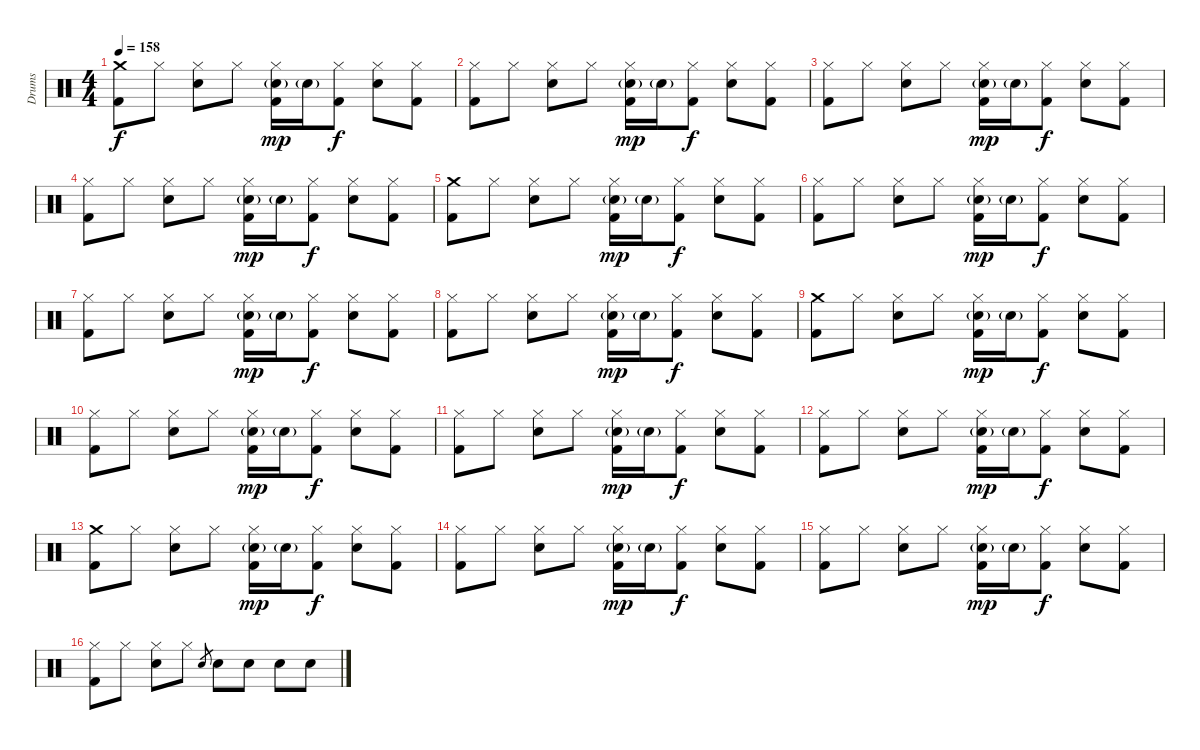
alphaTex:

\track ("Drums" "Drums") {instrument percussion}
\staff {score}
\articulation defaults
\ts (4 4)
\tempo 158
\clef neutral
\ks c
("Crash medium (hit)" "Kick (hit) 2").8{dy f} "Hi-Hat (closed)".8 ("Hi-Hat (closed)" "Electric Snare (hit)").8 "Hi-Hat (closed)".8 ("Hi-Hat (closed)" "Electric Snare (hit)"{g} "Kick (hit) 2").16{dy mp} "Electric Snare (hit)"{g}.16 ("Hi-Hat (closed)" "Kick (hit) 2").8{dy f} ("Hi-Hat (closed)" "Electric Snare (hit)").8 ("Hi-Hat (closed)" "Kick (hit) 2").8 |
("Hi-Hat (closed)" "Kick (hit) 2").8 "Hi-Hat (closed)".8 ("Hi-Hat (closed)" "Electric Snare (hit)").8 "Hi-Hat (closed)".8 ("Hi-Hat (closed)" "Electric Snare (hit)"{g} "Kick (hit) 2").16{dy mp} "Electric Snare (hit)"{g}.16 ("Hi-Hat (closed)" "Kick (hit) 2").8{dy f} ("Hi-Hat (closed)" "Electric Snare (hit)").8 ("Hi-Hat (closed)" "Kick (hit) 2").8 |
("Hi-Hat (closed)" "Kick (hit) 2").8 "Hi-Hat (closed)".8 ("Hi-Hat (closed)" "Electric Snare (hit)").8 "Hi-Hat (closed)".8 ("Hi-Hat (closed)" "Electric Snare (hit)"{g} "Kick (hit) 2").16{dy mp} "Electric Snare (hit)"{g}.16 ("Hi-Hat (closed)" "Kick (hit) 2").8{dy f} ("Hi-Hat (closed)" "Electric Snare (hit)").8 ("Hi-Hat (closed)" "Kick (hit) 2").8 |
("Hi-Hat (closed)" "Kick (hit) 2").8 "Hi-Hat (closed)".8 ("Hi-Hat (closed)" "Electric Snare (hit)").8 "Hi-Hat (closed)".8 ("Hi-Hat (closed)" "Electric Snare (hit)"{g} "Kick (hit) 2").16{dy mp} "Electric Snare (hit)"{g}.16 ("Hi-Hat (closed)" "Kick (hit) 2").8{dy f} ("Hi-Hat (closed)" "Electric Snare (hit)").8 ("Hi-Hat (closed)" "Kick (hit) 2").8 |
("Crash medium (hit)" "Kick (hit) 2").8 "Hi-Hat (closed)".8 ("Hi-Hat (closed)" "Electric Snare (hit)").8 "Hi-Hat (closed)".8 ("Hi-Hat (closed)" "Electric Snare (hit)"{g} "Kick (hit) 2").16{dy mp} "Electric Snare (hit)"{g}.16 ("Hi-Hat (closed)" "Kick (hit) 2").8{dy f} ("Hi-Hat (closed)" "Electric Snare (hit)").8 ("Hi-Hat (closed)" "Kick (hit) 2").8 |
("Hi-Hat (closed)" "Kick (hit) 2").8 "Hi-Hat (closed)".8 ("Hi-Hat (closed)" "Electric Snare (hit)").8 "Hi-Hat (closed)".8 ("Hi-Hat (closed)" "Electric Snare (hit)"{g} "Kick (hit) 2").16{dy mp} "Electric Snare (hit)"{g}.16 ("Hi-Hat (closed)" "Kick (hit) 2").8{dy f} ("Hi-Hat (closed)" "Electric Snare (hit)").8 ("Hi-Hat (closed)" "Kick (hit) 2").8 |
("Hi-Hat (closed)" "Kick (hit) 2").8 "Hi-Hat (closed)".8 ("Hi-Hat (closed)" "Electric Snare (hit)").8 "Hi-Hat (closed)".8 ("Hi-Hat (closed)" "Electric Snare (hit)"{g} "Kick (hit) 2").16{dy mp} "Electric Snare (hit)"{g}.16 ("Hi-Hat (closed)" "Kick (hit) 2").8{dy f} ("Hi-Hat (closed)" "Electric Snare (hit)").8 ("Hi-Hat (closed)" "Kick (hit) 2").8 |
("Hi-Hat (closed)" "Kick (hit) 2").8 "Hi-Hat (closed)".8 ("Hi-Hat (closed)" "Electric Snare (hit)").8 "Hi-Hat (closed)".8 ("Hi-Hat (closed)" "Electric Snare (hit)"{g} "Kick (hit) 2").16{dy mp} "Electric Snare (hit)"{g}.16 ("Hi-Hat (closed)" "Kick (hit) 2").8{dy f} ("Hi-Hat (closed)" "Electric Snare (hit)").8 ("Hi-Hat (closed)" "Kick (hit) 2").8 |
("Crash medium (hit)" "Kick (hit) 2").8 "Hi-Hat (closed)".8 ("Hi-Hat (closed)" "Electric Snare (hit)").8 "Hi-Hat (closed)".8 ("Hi-Hat (closed)" "Electric Snare (hit)"{g} "Kick (hit) 2").16{dy mp} "Electric Snare (hit)"{g}.16 ("Hi-Hat (closed)" "Kick (hit) 2").8{dy f} ("Hi-Hat (closed)" "Electric Snare (hit)").8 ("Hi-Hat (closed)" "Kick (hit) 2").8 |
("Hi-Hat (closed)" "Kick (hit) 2").8 "Hi-Hat (closed)".8 ("Hi-Hat (closed)" "Electric Snare (hit)").8 "Hi-Hat (closed)".8 ("Hi-Hat (closed)" "Electric Snare (hit)"{g} "Kick (hit) 2").16{dy mp} "Electric Snare (hit)"{g}.16 ("Hi-Hat (closed)" "Kick (hit) 2").8{dy f} ("Hi-Hat (closed)" "Electric Snare (hit)").8 ("Hi-Hat (closed)" "Kick (hit) 2").8 |
("Hi-Hat (closed)" "Kick (hit) 2").8 "Hi-Hat (closed)".8 ("Hi-Hat (closed)" "Electric Snare (hit)").8 "Hi-Hat (closed)".8 ("Hi-Hat (closed)" "Electric Snare (hit)"{g} "Kick (hit) 2").16{dy mp} "Electric Snare (hit)"{g}.16 ("Hi-Hat (closed)" "Kick (hit) 2").8{dy f} ("Hi-Hat (closed)" "Electric Snare (hit)").8 ("Hi-Hat (closed)" "Kick (hit) 2").8 |
("Hi-Hat (closed)" "Kick (hit) 2").8 "Hi-Hat (closed)".8 ("Hi-Hat (closed)" "Electric Snare (hit)").8 "Hi-Hat (closed)".8 ("Hi-Hat (closed)" "Electric Snare (hit)"{g} "Kick (hit) 2").16{dy mp} "Electric Snare (hit)"{g}.16 ("Hi-Hat (closed)" "Kick (hit) 2").8{dy f} ("Hi-Hat (closed)" "Electric Snare (hit)").8 ("Hi-Hat (closed)" "Kick (hit) 2").8 |
("Crash medium (hit)" "Kick (hit) 2").8 "Hi-Hat (closed)".8 ("Hi-Hat (closed)" "Electric Snare (hit)").8 "Hi-Hat (closed)".8 ("Hi-Hat (closed)" "Electric Snare (hit)"{g} "Kick (hit) 2").16{dy mp} "Electric Snare (hit)"{g}.16 ("Hi-Hat (closed)" "Kick (hit) 2").8{dy f} ("Hi-Hat (closed)" "Electric Snare (hit)").8 ("Hi-Hat (closed)" "Kick (hit) 2").8 |
("Hi-Hat (closed)" "Kick (hit) 2").8 "Hi-Hat (closed)".8 ("Hi-Hat (closed)" "Electric Snare (hit)").8 "Hi-Hat (closed)".8 ("Hi-Hat (closed)" "Electric Snare (hit)"{g} "Kick (hit) 2").16{dy mp} "Electric Snare (hit)"{g}.16 ("Hi-Hat (closed)" "Kick (hit) 2").8{dy f} ("Hi-Hat (closed)" "Electric Snare (hit)").8 ("Hi-Hat (closed)" "Kick (hit) 2").8 |
("Hi-Hat (closed)" "Kick (hit) 2").8 "Hi-Hat (closed)".8 ("Hi-Hat (closed)" "Electric Snare (hit)").8 "Hi-Hat (closed)".8 ("Hi-Hat (closed)" "Electric Snare (hit)"{g} "Kick (hit) 2").16{dy mp} "Electric Snare (hit)"{g}.16 ("Hi-Hat (closed)" "Kick (hit) 2").8{dy f} ("Hi-Hat (closed)" "Electric Snare (hit)").8 ("Hi-Hat (closed)" "Kick (hit) 2").8 |
("Hi-Hat (closed)" "Kick (hit) 2").8 "Hi-Hat (closed)".8 ("Hi-Hat (closed)" "Electric Snare (hit)").8 "Hi-Hat (closed)".8 "Electric Snare (hit)".8{gr} "Electric Snare (hit)".8 "Electric Snare (hit)".8 "Electric Snare (hit)".8 "Electric Snare (hit)".8
